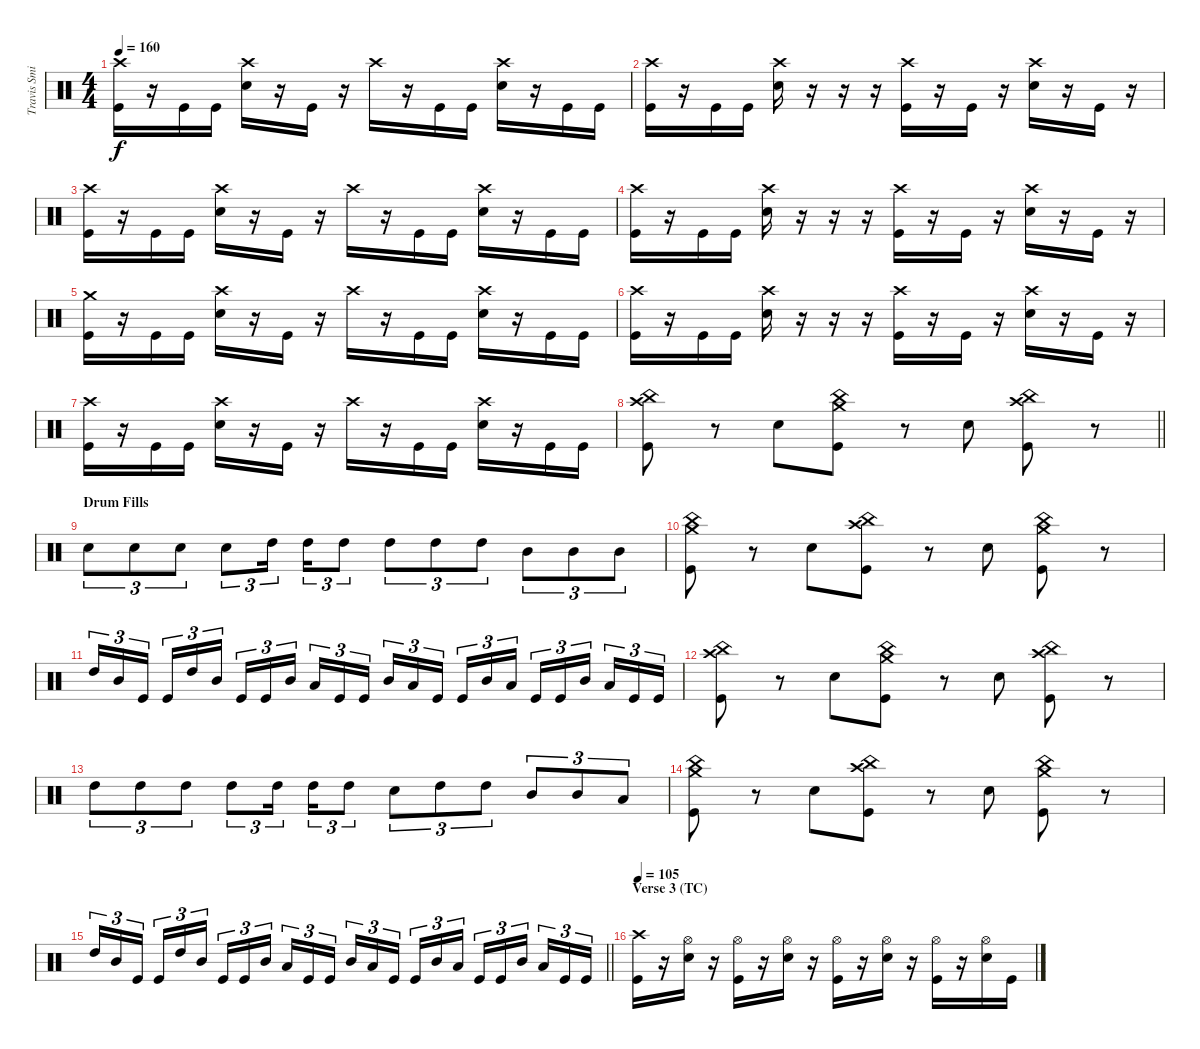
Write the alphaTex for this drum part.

\track ("Travis Smith" "Travis Smi") {instrument percussion}
\staff {score}
\articulation defaults
\ts (4 4)
\tempo 160
\clef neutral
\ks c
("Crash high (hit)" "Kick (hit)").16{dy f} r.16 "Kick (hit)".16 "Kick (hit)".16 ("Crash high (hit)" "Electric Snare (hit)").16 r.16 "Kick (hit)".16 r.16 "Crash high (hit)".16 r.16 "Kick (hit)".16 "Kick (hit)".16 ("Crash high (hit)" "Electric Snare (hit)").16 r.16 "Kick (hit)".16 "Kick (hit)".16 |
("Crash high (hit)" "Kick (hit)").16 r.16 "Kick (hit)".16 "Kick (hit)".16 ("Crash high (hit)" "Electric Snare (hit)").16 r.16 r.16 r.16 ("Crash high (hit)" "Kick (hit)").16 r.16 "Kick (hit)".16 r.16 ("Crash high (hit)" "Electric Snare (hit)").16 r.16 "Kick (hit)".16 r.16 |
("Crash high (hit)" "Kick (hit)").16 r.16 "Kick (hit)".16 "Kick (hit)".16 ("Crash high (hit)" "Electric Snare (hit)").16 r.16 "Kick (hit)".16 r.16 "Crash high (hit)".16 r.16 "Kick (hit)".16 "Kick (hit)".16 ("Crash high (hit)" "Electric Snare (hit)").16 r.16 "Kick (hit)".16 "Kick (hit)".16 |
("Crash high (hit)" "Kick (hit)").16 r.16 "Kick (hit)".16 "Kick (hit)".16 ("Crash high (hit)" "Electric Snare (hit)").16 r.16 r.16 r.16 ("Crash high (hit)" "Kick (hit)").16 r.16 "Kick (hit)".16 r.16 ("Crash high (hit)" "Electric Snare (hit)").16 r.16 "Kick (hit)".16 r.16 |
("Crash medium (hit)" "Kick (hit)").16 r.16 "Kick (hit)".16 "Kick (hit)".16 ("Crash high (hit)" "Electric Snare (hit)").16 r.16 "Kick (hit)".16 r.16 "Crash high (hit)".16 r.16 "Kick (hit)".16 "Kick (hit)".16 ("Crash high (hit)" "Electric Snare (hit)").16 r.16 "Kick (hit)".16 "Kick (hit)".16 |
("Crash high (hit)" "Kick (hit)").16 r.16 "Kick (hit)".16 "Kick (hit)".16 ("Crash high (hit)" "Electric Snare (hit)").16 r.16 r.16 r.16 ("Crash high (hit)" "Kick (hit)").16 r.16 "Kick (hit)".16 r.16 ("Crash high (hit)" "Electric Snare (hit)").16 r.16 "Kick (hit)".16 r.16 |
("Crash high (hit)" "Kick (hit)").16 r.16 "Kick (hit)".16 "Kick (hit)".16 ("Crash high (hit)" "Electric Snare (hit)").16 r.16 "Kick (hit)".16 r.16 "Crash high (hit)".16 r.16 "Kick (hit)".16 "Kick (hit)".16 ("Crash high (hit)" "Electric Snare (hit)").16 r.16 "Kick (hit)".16 "Kick (hit)".16 |
\barLineRight lightlight
("Crash high (hit)" "China (hit)" "Kick (hit)").8 r.8 "Electric Snare (hit)".8 ("Crash medium (hit)" "China (hit)" "Kick (hit)").8 r.8 "Electric Snare (hit)".8 ("Crash high (hit)" "China (hit)" "Kick (hit)").8 r.8 |
\section ("" "Drum Fills")
"Electric Snare (hit)".8{tu (3 2)} "Electric Snare (hit)".8{tu (3 2)} "Electric Snare (hit)".8{tu (3 2)} "Electric Snare (hit)".8{tu (3 2)} "High Tom (hit)".16{tu (3 2) beam splitsecondary} "High Tom (hit)".16{tu (3 2)} "High Tom (hit)".8{tu (3 2)} "High Tom (hit)".8{tu (3 2)} "High Tom (hit)".8{tu (3 2)} "High Tom (hit)".8{tu (3 2)} "Mid Tom (hit)".8{tu (3 2)} "Mid Tom (hit)".8{tu (3 2)} "Mid Tom (hit)".8{tu (3 2)} |
("Crash medium (hit)" "China (hit)" "Kick (hit)").8 r.8 "Electric Snare (hit)".8 ("Crash high (hit)" "China (hit)" "Kick (hit)").8 r.8 "Electric Snare (hit)".8 ("Crash medium (hit)" "China (hit)" "Kick (hit)").8 r.8 |
"High Tom (hit)".16{tu (3 2)} "Mid Tom (hit)".16{tu (3 2)} "Kick (hit)".16{tu (3 2) beam splitsecondary} "Kick (hit)".16{tu (3 2)} "High Tom (hit)".16{tu (3 2)} "Mid Tom (hit)".16{tu (3 2)} "Kick (hit)".16{tu (3 2)} "Kick (hit)".16{tu (3 2)} "Mid Tom (hit)".16{tu (3 2) beam splitsecondary} "Low Tom (hit)".16{tu (3 2)} "Kick (hit)".16{tu (3 2)} "Kick (hit)".16{tu (3 2)} "Mid Tom (hit)".16{tu (3 2)} "Low Tom (hit)".16{tu (3 2)} "Kick (hit)".16{tu (3 2) beam splitsecondary} "Kick (hit)".16{tu (3 2)} "Mid Tom (hit)".16{tu (3 2)} "Low Tom (hit)".16{tu (3 2)} "Kick (hit)".16{tu (3 2)} "Kick (hit)".16{tu (3 2)} "Mid Tom (hit)".16{tu (3 2) beam splitsecondary} "Low Tom (hit)".16{tu (3 2)} "Kick (hit)".16{tu (3 2)} "Kick (hit)".16{tu (3 2)} |
("Crash high (hit)" "China (hit)" "Kick (hit)").8 r.8 "Electric Snare (hit)".8 ("Crash medium (hit)" "China (hit)" "Kick (hit)").8 r.8 "Electric Snare (hit)".8 ("Crash high (hit)" "China (hit)" "Kick (hit)").8 r.8 |
"High Tom (hit)".8{tu (3 2)} "High Tom (hit)".8{tu (3 2)} "High Tom (hit)".8{tu (3 2)} "High Tom (hit)".8{tu (3 2)} "High Tom (hit)".16{tu (3 2) beam splitsecondary} "High Tom (hit)".16{tu (3 2)} "High Tom (hit)".8{tu (3 2)} "Electric Snare (hit)".8{tu (3 2)} "High Tom (hit)".8{tu (3 2)} "High Tom (hit)".8{tu (3 2)} "Mid Tom (hit)".8{tu (3 2)} "Mid Tom (hit)".8{tu (3 2)} "Low Tom (hit)".8{tu (3 2)} |
("Crash medium (hit)" "China (hit)" "Kick (hit)").8 r.8 "Electric Snare (hit)".8 ("Crash high (hit)" "China (hit)" "Kick (hit)").8 r.8 "Electric Snare (hit)".8 ("Crash medium (hit)" "China (hit)" "Kick (hit)").8 r.8 |
\barLineRight lightlight "High Tom (hit)".16{tu (3 2)} "Mid Tom (hit)".16{tu (3 2)} "Kick (hit)".16{tu (3 2) beam splitsecondary} "Kick (hit)".16{tu (3 2)} "High Tom (hit)".16{tu (3 2)} "Mid Tom (hit)".16{tu (3 2)} "Kick (hit)".16{tu (3 2)} "Kick (hit)".16{tu (3 2)} "Mid Tom (hit)".16{tu (3 2) beam splitsecondary} "Low Tom (hit)".16{tu (3 2)} "Kick (hit)".16{tu (3 2)} "Kick (hit)".16{tu (3 2)} "Mid Tom (hit)".16{tu (3 2)} "Low Tom (hit)".16{tu (3 2)} "Kick (hit)".16{tu (3 2) beam splitsecondary} "Kick (hit)".16{tu (3 2)} "Mid Tom (hit)".16{tu (3 2)} "Low Tom (hit)".16{tu (3 2)} "Kick (hit)".16{tu (3 2)} "Kick (hit)".16{tu (3 2)} "Mid Tom (hit)".16{tu (3 2) beam splitsecondary} "Low Tom (hit)".16{tu (3 2)} "Kick (hit)".16{tu (3 2)} "Kick (hit)".16{tu (3 2)}
|
\section ("" "Verse 3 (TC)")
\tempo 105
("Crash high (hit)" "Kick (hit)").16 r.16 ("Hi-Hat (open)" "Electric Snare (hit)").16 r.16 ("Hi-Hat (open)" "Kick (hit)").16 r.16 ("Hi-Hat (open)" "Electric Snare (hit)").16 r.16 ("Hi-Hat (open)" "Kick (hit)").16 r.16 ("Hi-Hat (open)" "Electric Snare (hit)").16 r.16 ("Hi-Hat (open)" "Kick (hit)").16 r.16 ("Hi-Hat (open)" "Electric Snare (hit)").16 "Kick (hit)".16
